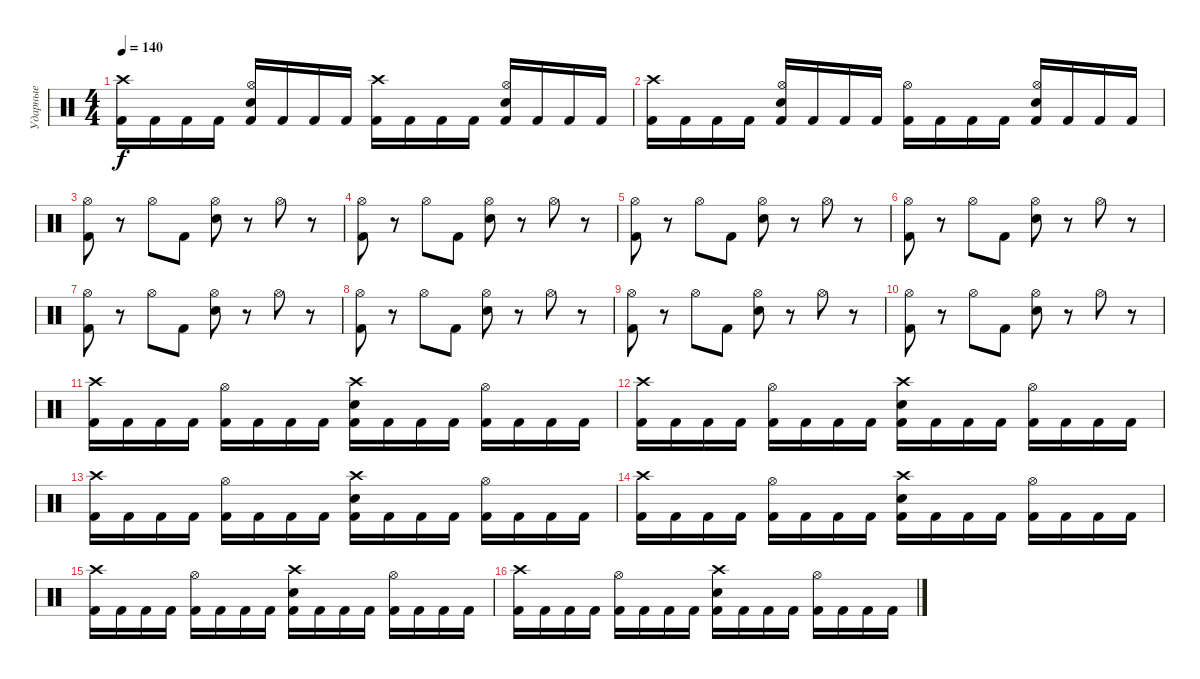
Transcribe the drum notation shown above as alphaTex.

\track ("Ударные" "Ударные") {mute instrument percussion}
\staff {score}
\articulation defaults
\ts (4 4)
\tempo 140
\clef neutral
\ks c
("Crash high (hit)" "Kick (hit) 2").16{dy f} "Kick (hit) 2".16 "Kick (hit) 2".16 "Kick (hit) 2".16 ("Hi-Hat (open)" "Electric Snare (hit)" "Kick (hit) 2").16 "Kick (hit) 2".16 "Kick (hit) 2".16 "Kick (hit) 2".16 ("Crash high (hit)" "Kick (hit) 2").16 "Kick (hit) 2".16 "Kick (hit) 2".16 "Kick (hit) 2".16 ("Hi-Hat (open)" "Electric Snare (hit)" "Kick (hit) 2").16 "Kick (hit) 2".16 "Kick (hit) 2".16 "Kick (hit) 2".16 |
("Crash high (hit)" "Kick (hit) 2").16 "Kick (hit) 2".16 "Kick (hit) 2".16 "Kick (hit) 2".16 ("Hi-Hat (open)" "Electric Snare (hit)" "Kick (hit) 2").16 "Kick (hit) 2".16 "Kick (hit) 2".16 "Kick (hit) 2".16 ("Hi-Hat (open)" "Kick (hit) 2").16 "Kick (hit) 2".16 "Kick (hit) 2".16 "Kick (hit) 2".16 ("Hi-Hat (open)" "Electric Snare (hit)" "Kick (hit) 2").16 "Kick (hit) 2".16 "Kick (hit) 2".16 "Kick (hit) 2".16 |
("Kick (hit) 2" "Hi-Hat (open)").8 r.8 "Hi-Hat (open)".8 "Kick (hit) 2".8 ("Electric Snare (hit)" "Hi-Hat (open)").8 r.8 "Hi-Hat (open)".8 r.8 |
("Kick (hit) 2" "Hi-Hat (open)").8 r.8 "Hi-Hat (open)".8 "Kick (hit) 2".8 ("Electric Snare (hit)" "Hi-Hat (open)").8 r.8 "Hi-Hat (open)".8 r.8 |
("Kick (hit) 2" "Hi-Hat (open)").8 r.8 "Hi-Hat (open)".8 "Kick (hit) 2".8 ("Electric Snare (hit)" "Hi-Hat (open)").8 r.8 "Hi-Hat (open)".8 r.8 |
("Kick (hit) 2" "Hi-Hat (open)").8 r.8 "Hi-Hat (open)".8 "Kick (hit) 2".8 ("Electric Snare (hit)" "Hi-Hat (open)").8 r.8 "Hi-Hat (open)".8 r.8 |
("Kick (hit) 2" "Hi-Hat (open)").8 r.8 "Hi-Hat (open)".8 "Kick (hit) 2".8 ("Electric Snare (hit)" "Hi-Hat (open)").8 r.8 "Hi-Hat (open)".8 r.8 |
("Kick (hit) 2" "Hi-Hat (open)").8 r.8 "Hi-Hat (open)".8 "Kick (hit) 2".8 ("Electric Snare (hit)" "Hi-Hat (open)").8 r.8 "Hi-Hat (open)".8 r.8 |
("Kick (hit) 2" "Hi-Hat (open)").8 r.8 "Hi-Hat (open)".8 "Kick (hit) 2".8 ("Electric Snare (hit)" "Hi-Hat (open)").8 r.8 "Hi-Hat (open)".8 r.8 |
("Kick (hit) 2" "Hi-Hat (open)").8 r.8 "Hi-Hat (open)".8 "Kick (hit) 2".8 ("Electric Snare (hit)" "Hi-Hat (open)").8 r.8 "Hi-Hat (open)".8 r.8 |
("Crash high (hit)" "Kick (hit) 2").16 "Kick (hit) 2".16 "Kick (hit) 2".16 "Kick (hit) 2".16 ("Hi-Hat (open)" "Kick (hit) 2").16 "Kick (hit) 2".16 "Kick (hit) 2".16 "Kick (hit) 2".16 ("Crash high (hit)" "Electric Snare (hit)" "Kick (hit) 2").16 "Kick (hit) 2".16 "Kick (hit) 2".16 "Kick (hit) 2".16 ("Hi-Hat (open)" "Kick (hit) 2").16 "Kick (hit) 2".16 "Kick (hit) 2".16 "Kick (hit) 2".16 |
("Crash high (hit)" "Kick (hit) 2").16 "Kick (hit) 2".16 "Kick (hit) 2".16 "Kick (hit) 2".16 ("Hi-Hat (open)" "Kick (hit) 2").16 "Kick (hit) 2".16 "Kick (hit) 2".16 "Kick (hit) 2".16 ("Crash high (hit)" "Electric Snare (hit)" "Kick (hit) 2").16 "Kick (hit) 2".16 "Kick (hit) 2".16 "Kick (hit) 2".16 ("Hi-Hat (open)" "Kick (hit) 2").16 "Kick (hit) 2".16 "Kick (hit) 2".16 "Kick (hit) 2".16 |
("Crash high (hit)" "Kick (hit) 2").16 "Kick (hit) 2".16 "Kick (hit) 2".16 "Kick (hit) 2".16 ("Hi-Hat (open)" "Kick (hit) 2").16 "Kick (hit) 2".16 "Kick (hit) 2".16 "Kick (hit) 2".16 ("Crash high (hit)" "Electric Snare (hit)" "Kick (hit) 2").16 "Kick (hit) 2".16 "Kick (hit) 2".16 "Kick (hit) 2".16 ("Hi-Hat (open)" "Kick (hit) 2").16 "Kick (hit) 2".16 "Kick (hit) 2".16 "Kick (hit) 2".16 |
("Crash high (hit)" "Kick (hit) 2").16 "Kick (hit) 2".16 "Kick (hit) 2".16 "Kick (hit) 2".16 ("Hi-Hat (open)" "Kick (hit) 2").16 "Kick (hit) 2".16 "Kick (hit) 2".16 "Kick (hit) 2".16 ("Crash high (hit)" "Electric Snare (hit)" "Kick (hit) 2").16 "Kick (hit) 2".16 "Kick (hit) 2".16 "Kick (hit) 2".16 ("Hi-Hat (open)" "Kick (hit) 2").16 "Kick (hit) 2".16 "Kick (hit) 2".16 "Kick (hit) 2".16 |
("Crash high (hit)" "Kick (hit) 2").16 "Kick (hit) 2".16 "Kick (hit) 2".16 "Kick (hit) 2".16 ("Hi-Hat (open)" "Kick (hit) 2").16 "Kick (hit) 2".16 "Kick (hit) 2".16 "Kick (hit) 2".16 ("Crash high (hit)" "Electric Snare (hit)" "Kick (hit) 2").16 "Kick (hit) 2".16 "Kick (hit) 2".16 "Kick (hit) 2".16 ("Hi-Hat (open)" "Kick (hit) 2").16 "Kick (hit) 2".16 "Kick (hit) 2".16 "Kick (hit) 2".16 |
("Crash high (hit)" "Kick (hit) 2").16 "Kick (hit) 2".16 "Kick (hit) 2".16 "Kick (hit) 2".16 ("Hi-Hat (open)" "Kick (hit) 2").16 "Kick (hit) 2".16 "Kick (hit) 2".16 "Kick (hit) 2".16 ("Crash high (hit)" "Electric Snare (hit)" "Kick (hit) 2").16 "Kick (hit) 2".16 "Kick (hit) 2".16 "Kick (hit) 2".16 ("Hi-Hat (open)" "Kick (hit) 2").16 "Kick (hit) 2".16 "Kick (hit) 2".16 "Kick (hit) 2".16
